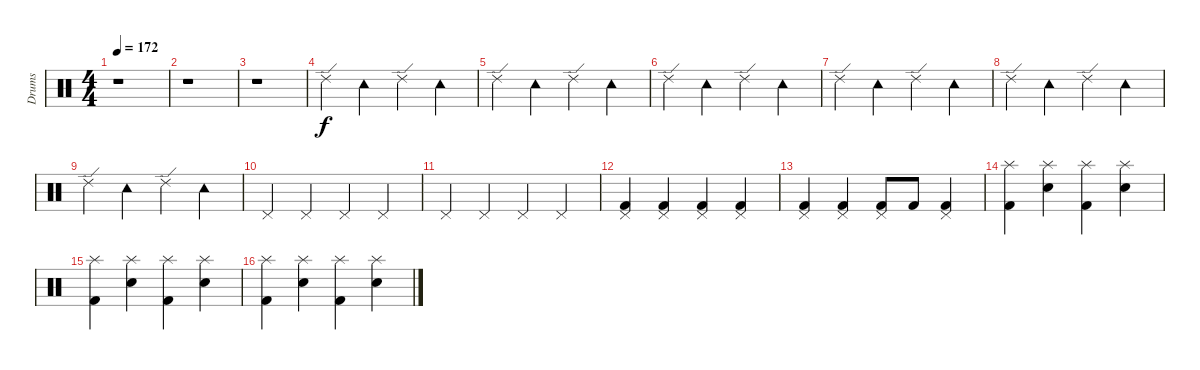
\track ("Drums" "Drums") {instrument percussion}
\staff {score}
\articulation defaults
\ts (4 4)
\tempo 172
\clef neutral
\ks c
r.1{dy f} |
r.1 |
r.1 |
"Ride (edge) 2".4 "Tambourine (hit)".4 "Ride (edge) 2".4 "Tambourine (hit)".4 |
"Ride (edge) 2".4 "Tambourine (hit)".4 "Ride (edge) 2".4 "Tambourine (hit)".4 |
"Ride (edge) 2".4 "Tambourine (hit)".4 "Ride (edge) 2".4 "Tambourine (hit)".4 |
"Ride (edge) 2".4 "Tambourine (hit)".4 "Ride (edge) 2".4 "Tambourine (hit)".4 |
"Ride (edge) 2".4 "Tambourine (hit)".4 "Ride (edge) 2".4 "Tambourine (hit)".4 |
"Ride (edge) 2".4 "Tambourine (hit)".4 "Ride (edge) 2".4 "Tambourine (hit)".4 |
"Pedal Hi-Hat (hit)".4 "Pedal Hi-Hat (hit)".4 "Pedal Hi-Hat (hit)".4 "Pedal Hi-Hat (hit)".4 |
"Pedal Hi-Hat (hit)".4 "Pedal Hi-Hat (hit)".4 "Pedal Hi-Hat (hit)".4 "Pedal Hi-Hat (hit)".4 |
("Kick (hit) 2" "Pedal Hi-Hat (hit)").4 ("Kick (hit) 2" "Pedal Hi-Hat (hit)").4 ("Kick (hit) 2" "Pedal Hi-Hat (hit)").4 ("Kick (hit) 2" "Pedal Hi-Hat (hit)").4 |
("Kick (hit) 2" "Pedal Hi-Hat (hit)").4 ("Kick (hit) 2" "Pedal Hi-Hat (hit)").4 ("Kick (hit) 2" "Pedal Hi-Hat (hit)").8 "Kick (hit) 2".8 ("Kick (hit) 2" "Pedal Hi-Hat (hit)").4 |
("Splash (hit)" "Kick (hit) 2").4 ("Splash (hit)" "Snare (hit) 2").4 ("Splash (hit)" "Kick (hit) 2").4 ("Splash (hit)" "Snare (hit) 2").4 |
("Splash (hit)" "Kick (hit) 2").4 ("Splash (hit)" "Snare (hit) 2").4 ("Splash (hit)" "Kick (hit) 2").4 ("Splash (hit)" "Snare (hit) 2").4 |
("Splash (hit)" "Kick (hit) 2").4 ("Splash (hit)" "Snare (hit) 2").4 ("Splash (hit)" "Kick (hit) 2").4 ("Splash (hit)" "Snare (hit) 2").4
